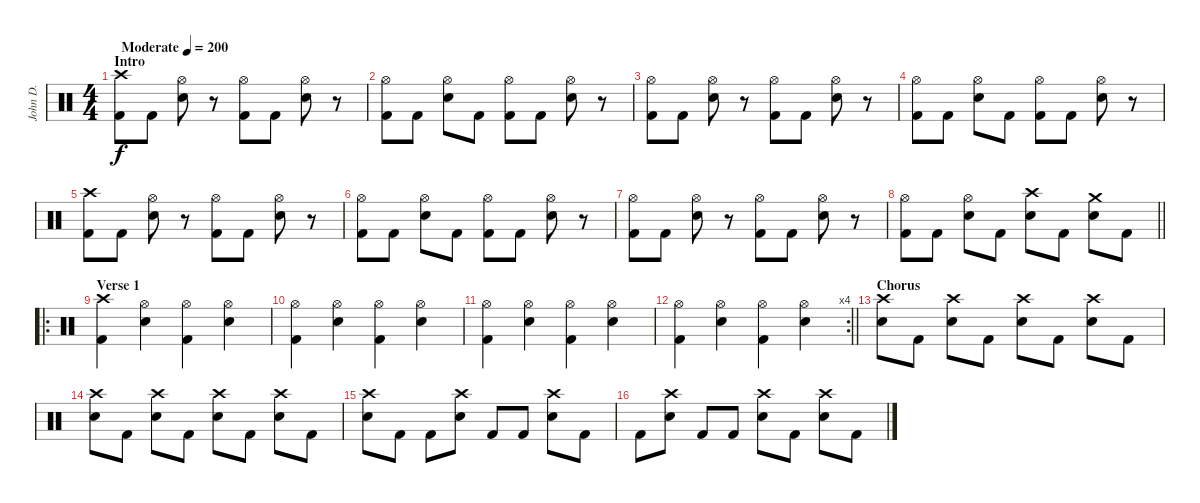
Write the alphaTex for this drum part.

\track ("John D." "John D.") {instrument percussion}
\staff {score}
\articulation defaults
\ts (4 4)
\section ("" "Intro")
\tempo (200 "Moderate")
\clef neutral
\ks c
("Crash high (hit)" "Kick (hit) 2").8{dy f} "Kick (hit) 2".8 ("Hi-Hat (open)" "Snare (hit) 2").8 r.8 ("Hi-Hat (open)" "Kick (hit) 2").8 "Kick (hit) 2".8 ("Hi-Hat (open)" "Snare (hit) 2").8 r.8 |
("Hi-Hat (open)" "Kick (hit) 2").8 "Kick (hit) 2".8 ("Hi-Hat (open)" "Snare (hit) 2").8 "Kick (hit) 2".8 ("Hi-Hat (open)" "Kick (hit) 2").8 "Kick (hit) 2".8 ("Hi-Hat (open)" "Snare (hit) 2").8 r.8 |
("Hi-Hat (open)" "Kick (hit) 2").8 "Kick (hit) 2".8 ("Hi-Hat (open)" "Snare (hit) 2").8 r.8 ("Hi-Hat (open)" "Kick (hit) 2").8 "Kick (hit) 2".8 ("Hi-Hat (open)" "Snare (hit) 2").8 r.8 |
("Hi-Hat (open)" "Kick (hit) 2").8 "Kick (hit) 2".8 ("Hi-Hat (open)" "Snare (hit) 2").8 "Kick (hit) 2".8 ("Hi-Hat (open)" "Kick (hit) 2").8 "Kick (hit) 2".8 ("Hi-Hat (open)" "Snare (hit) 2").8 r.8 |
("Crash high (hit)" "Kick (hit) 2").8 "Kick (hit) 2".8 ("Hi-Hat (open)" "Snare (hit) 2").8 r.8 ("Hi-Hat (open)" "Kick (hit) 2").8 "Kick (hit) 2".8 ("Hi-Hat (open)" "Snare (hit) 2").8 r.8 |
("Hi-Hat (open)" "Kick (hit) 2").8 "Kick (hit) 2".8 ("Hi-Hat (open)" "Snare (hit) 2").8 "Kick (hit) 2".8 ("Hi-Hat (open)" "Kick (hit) 2").8 "Kick (hit) 2".8 ("Hi-Hat (open)" "Snare (hit) 2").8 r.8 |
("Hi-Hat (open)" "Kick (hit) 2").8 "Kick (hit) 2".8 ("Hi-Hat (open)" "Snare (hit) 2").8 r.8 ("Hi-Hat (open)" "Kick (hit) 2").8 "Kick (hit) 2".8 ("Hi-Hat (open)" "Snare (hit) 2").8 r.8 |
\barLineRight lightlight
("Hi-Hat (open)" "Kick (hit) 2").8 "Kick (hit) 2".8 ("Hi-Hat (open)" "Snare (hit) 2").8 "Kick (hit) 2".8 ("Crash high (hit)" "Snare (hit) 2").8 "Kick (hit) 2".8 ("Crash medium (hit)" "Snare (hit) 2").8 "Kick (hit) 2".8 |
\ro
\section ("" "Verse 1")
("Crash high (hit)" "Kick (hit) 2").4 ("Hi-Hat (open)" "Snare (hit) 2").4 ("Hi-Hat (open)" "Kick (hit) 2").4 ("Hi-Hat (open)" "Snare (hit) 2").4 |
("Hi-Hat (open)" "Kick (hit) 2").4 ("Hi-Hat (open)" "Snare (hit) 2").4 ("Hi-Hat (open)" "Kick (hit) 2").4 ("Hi-Hat (open)" "Snare (hit) 2").4 |
("Hi-Hat (open)" "Kick (hit) 2").4 ("Hi-Hat (open)" "Snare (hit) 2").4 ("Hi-Hat (open)" "Kick (hit) 2").4 ("Hi-Hat (open)" "Snare (hit) 2").4 |
\rc 4
\barLineRight lightlight
("Hi-Hat (open)" "Kick (hit) 2").4 ("Hi-Hat (open)" "Snare (hit) 2").4 ("Hi-Hat (open)" "Kick (hit) 2").4 ("Hi-Hat (open)" "Snare (hit) 2").4 |
\section ("" "Chorus")
("Crash high (hit)" "Snare (hit) 2").8 "Kick (hit) 2".8 ("Crash high (hit)" "Snare (hit) 2").8 "Kick (hit) 2".8 ("Crash high (hit)" "Snare (hit) 2").8 "Kick (hit) 2".8 ("Crash high (hit)" "Snare (hit) 2").8 "Kick (hit) 2".8 |
("Crash high (hit)" "Snare (hit) 2").8 "Kick (hit) 2".8 ("Crash high (hit)" "Snare (hit) 2").8 "Kick (hit) 2".8 ("Crash high (hit)" "Snare (hit) 2").8 "Kick (hit) 2".8 ("Crash high (hit)" "Snare (hit) 2").8 "Kick (hit) 2".8 |
("Crash high (hit)" "Snare (hit) 2").8 "Kick (hit) 2".8 "Kick (hit) 2".8 ("Crash high (hit)" "Snare (hit) 2").8 "Kick (hit) 2".8 "Kick (hit) 2".8 ("Crash high (hit)" "Snare (hit) 2").8 "Kick (hit) 2".8 |
"Kick (hit) 2".8 ("Crash high (hit)" "Snare (hit) 2").8 "Kick (hit) 2".8 "Kick (hit) 2".8 ("Crash high (hit)" "Snare (hit) 2").8 "Kick (hit) 2".8 ("Crash high (hit)" "Snare (hit) 2").8 "Kick (hit) 2".8
